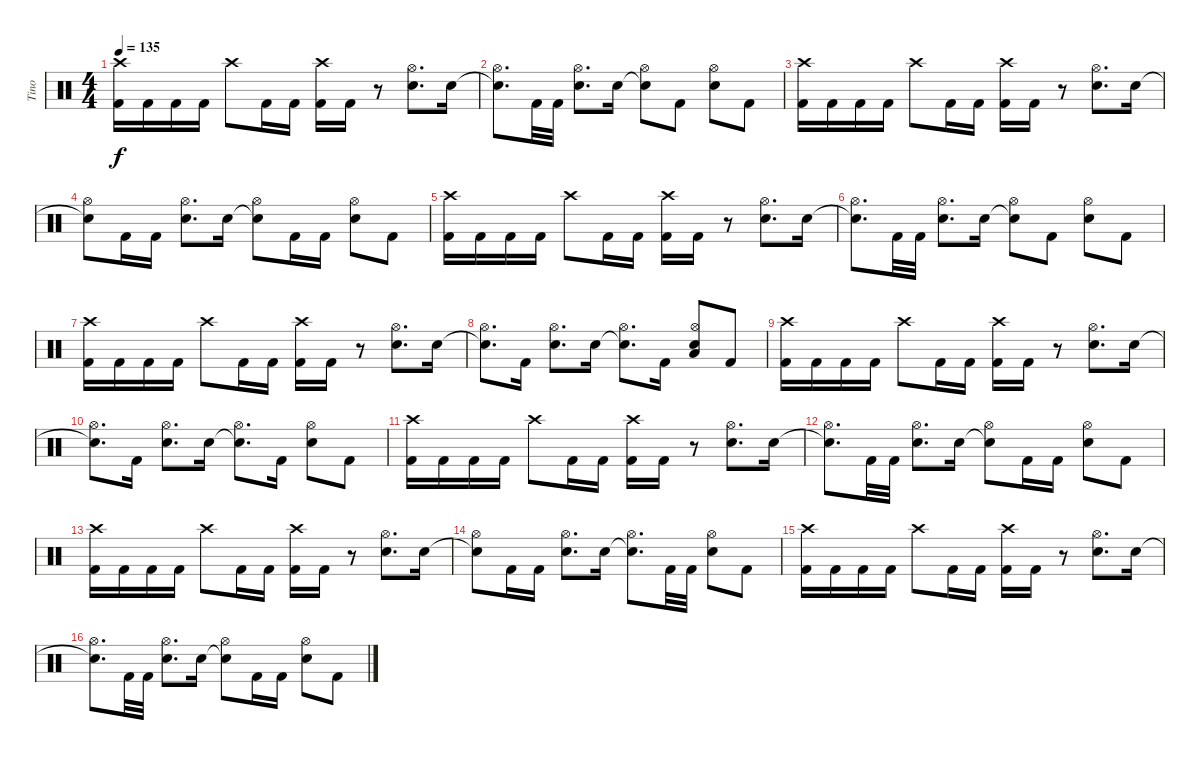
\track ("Tino" "Tino") {instrument percussion}
\staff {score}
\articulation defaults
\ts (4 4)
\tempo 135
\clef neutral
\ks c
("Kick (hit) 2" "Crash high (hit)").16{dy f} "Kick (hit) 2".16 "Kick (hit) 2".16 "Kick (hit) 2".16 "Crash high (hit)".8 "Kick (hit) 2".16 "Kick (hit) 2".16 ("Kick (hit) 2" "Crash high (hit)").16 "Kick (hit) 2".16 r.8 ("Electric Snare (hit)" "Hi-Hat (open)").8{d} "Electric Snare (hit)".16 |
("Electric Snare (hit)"{t} "Hi-Hat (open)").8{d} "Kick (hit) 2".32 "Kick (hit) 2".32 ("Electric Snare (hit)" "Hi-Hat (open)").8{d} "Electric Snare (hit)".16 ("Electric Snare (hit)"{t} "Hi-Hat (open)").8 "Kick (hit) 2".8 ("Electric Snare (hit)" "Hi-Hat (open)").8 "Kick (hit) 2".8 |
("Kick (hit) 2" "Crash high (hit)").16 "Kick (hit) 2".16 "Kick (hit) 2".16 "Kick (hit) 2".16 "Crash high (hit)".8 "Kick (hit) 2".16 "Kick (hit) 2".16 ("Kick (hit) 2" "Crash high (hit)").16 "Kick (hit) 2".16 r.8 ("Electric Snare (hit)" "Hi-Hat (open)").8{d} "Electric Snare (hit)".16 |
("Electric Snare (hit)"{t} "Hi-Hat (open)").8 "Kick (hit) 2".16 "Kick (hit) 2".16 ("Electric Snare (hit)" "Hi-Hat (open)").8{d} "Electric Snare (hit)".16 ("Electric Snare (hit)"{t} "Hi-Hat (open)").8 "Kick (hit) 2".16 "Kick (hit) 2".16 ("Electric Snare (hit)" "Hi-Hat (open)").8 "Kick (hit) 2".8 |
("Kick (hit) 2" "Crash high (hit)").16 "Kick (hit) 2".16 "Kick (hit) 2".16 "Kick (hit) 2".16 "Crash high (hit)".8 "Kick (hit) 2".16 "Kick (hit) 2".16 ("Kick (hit) 2" "Crash high (hit)").16 "Kick (hit) 2".16 r.8 ("Electric Snare (hit)" "Hi-Hat (open)").8{d} "Electric Snare (hit)".16 |
("Electric Snare (hit)"{t} "Hi-Hat (open)").8{d} "Kick (hit) 2".32 "Kick (hit) 2".32 ("Electric Snare (hit)" "Hi-Hat (open)").8{d} "Electric Snare (hit)".16 ("Electric Snare (hit)"{t} "Hi-Hat (open)").8 "Kick (hit) 2".8 ("Electric Snare (hit)" "Hi-Hat (open)").8 "Kick (hit) 2".8 |
("Kick (hit) 2" "Crash high (hit)").16 "Kick (hit) 2".16 "Kick (hit) 2".16 "Kick (hit) 2".16 "Crash high (hit)".8 "Kick (hit) 2".16 "Kick (hit) 2".16 ("Kick (hit) 2" "Crash high (hit)").16 "Kick (hit) 2".16 r.8 ("Electric Snare (hit)" "Hi-Hat (open)").8{d} "Electric Snare (hit)".16 |
("Electric Snare (hit)"{t} "Hi-Hat (open)").8{d} "Kick (hit) 2".16 ("Electric Snare (hit)" "Hi-Hat (open)").8{d} "Electric Snare (hit)".16 ("Electric Snare (hit)"{t} "Hi-Hat (open)").8{d} "Kick (hit) 2".16 ("Electric Snare (hit)" "Low Floor Tom (hit)" "Hi-Hat (open)").8 "Kick (hit) 2".8 |
("Kick (hit) 2" "Crash high (hit)").16 "Kick (hit) 2".16 "Kick (hit) 2".16 "Kick (hit) 2".16 "Crash high (hit)".8 "Kick (hit) 2".16 "Kick (hit) 2".16 ("Kick (hit) 2" "Crash high (hit)").16 "Kick (hit) 2".16 r.8 ("Electric Snare (hit)" "Hi-Hat (open)").8{d} "Electric Snare (hit)".16 |
("Electric Snare (hit)"{t} "Hi-Hat (open)").8{d} "Kick (hit) 2".16 ("Electric Snare (hit)" "Hi-Hat (open)").8{d} "Electric Snare (hit)".16 ("Electric Snare (hit)"{t} "Hi-Hat (open)").8{d} "Kick (hit) 2".16 ("Electric Snare (hit)" "Hi-Hat (open)").8 "Kick (hit) 2".8 |
("Kick (hit) 2" "Crash high (hit)").16 "Kick (hit) 2".16 "Kick (hit) 2".16 "Kick (hit) 2".16 "Crash high (hit)".8 "Kick (hit) 2".16 "Kick (hit) 2".16 ("Kick (hit) 2" "Crash high (hit)").16 "Kick (hit) 2".16 r.8 ("Electric Snare (hit)" "Hi-Hat (open)").8{d} "Electric Snare (hit)".16 |
("Electric Snare (hit)"{t} "Hi-Hat (open)").8{d} "Kick (hit) 2".32 "Kick (hit) 2".32 ("Electric Snare (hit)" "Hi-Hat (open)").8{d} "Electric Snare (hit)".16 ("Electric Snare (hit)"{t} "Hi-Hat (open)").8 "Kick (hit) 2".16 "Kick (hit) 2".16 ("Electric Snare (hit)" "Hi-Hat (open)").8 "Kick (hit) 2".8 |
("Kick (hit) 2" "Crash high (hit)").16 "Kick (hit) 2".16 "Kick (hit) 2".16 "Kick (hit) 2".16 "Crash high (hit)".8 "Kick (hit) 2".16 "Kick (hit) 2".16 ("Kick (hit) 2" "Crash high (hit)").16 "Kick (hit) 2".16 r.8 ("Electric Snare (hit)" "Hi-Hat (open)").8{d} "Electric Snare (hit)".16 |
("Electric Snare (hit)"{t} "Hi-Hat (open)").8 "Kick (hit) 2".16 "Kick (hit) 2".16 ("Electric Snare (hit)" "Hi-Hat (open)").8{d} "Electric Snare (hit)".16 ("Electric Snare (hit)"{t} "Hi-Hat (open)").8{d} "Kick (hit) 2".32 "Kick (hit) 2".32 ("Electric Snare (hit)" "Hi-Hat (open)").8 "Kick (hit) 2".8 |
("Kick (hit) 2" "Crash high (hit)").16 "Kick (hit) 2".16 "Kick (hit) 2".16 "Kick (hit) 2".16 "Crash high (hit)".8 "Kick (hit) 2".16 "Kick (hit) 2".16 ("Kick (hit) 2" "Crash high (hit)").16 "Kick (hit) 2".16 r.8 ("Electric Snare (hit)" "Hi-Hat (open)").8{d} "Electric Snare (hit)".16 |
("Electric Snare (hit)"{t} "Hi-Hat (open)").8{d} "Kick (hit) 2".32 "Kick (hit) 2".32 ("Electric Snare (hit)" "Hi-Hat (open)").8{d} "Electric Snare (hit)".16 ("Electric Snare (hit)"{t} "Hi-Hat (open)").8 "Kick (hit) 2".16 "Kick (hit) 2".16 ("Electric Snare (hit)" "Hi-Hat (open)").8 "Kick (hit) 2".8
